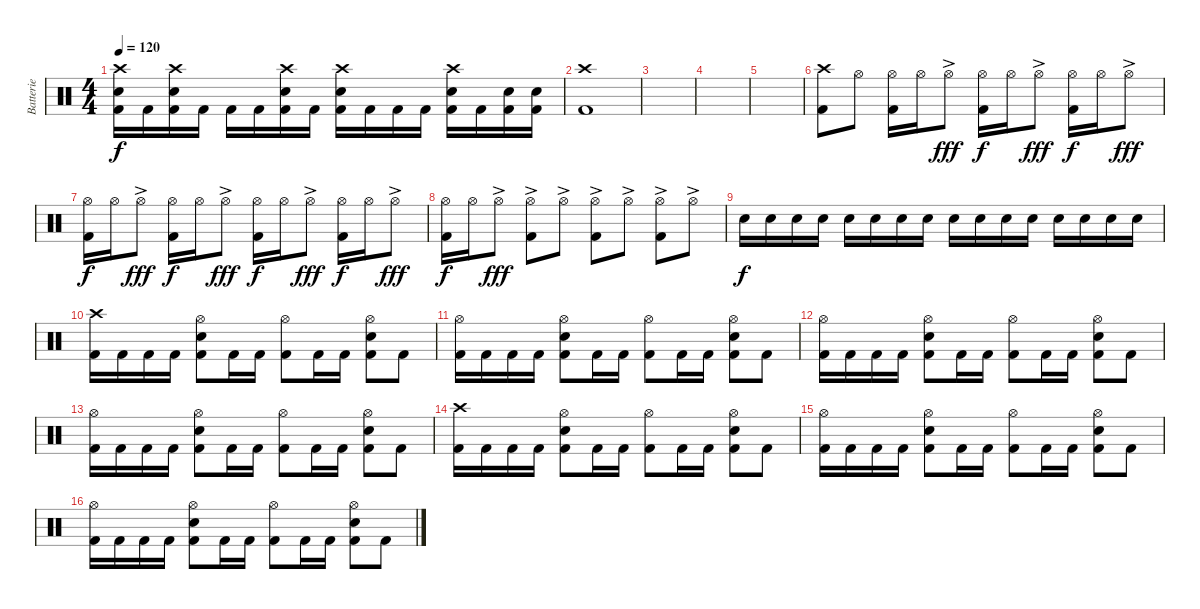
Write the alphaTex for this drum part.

\track ("Batterie" "Batterie") {instrument percussion}
\staff {score}
\articulation defaults
\ts (4 4)
\tempo 120
\clef neutral
\ks c
("Crash high (hit)" "Kick (hit) 2" "Electric Snare (hit)").16{dy f} "Kick (hit) 2".16 ("Crash high (hit)" "Kick (hit) 2" "Electric Snare (hit)").16 "Kick (hit) 2".16 "Kick (hit) 2".16 "Kick (hit) 2".16 ("Crash high (hit)" "Kick (hit) 2" "Electric Snare (hit)").16 "Kick (hit) 2".16 ("Crash high (hit)" "Kick (hit) 2" "Electric Snare (hit)").16 "Kick (hit) 2".16 "Kick (hit) 2".16 "Kick (hit) 2".16 ("Crash high (hit)" "Kick (hit) 2" "Electric Snare (hit)").16 "Kick (hit) 2".16 ("Kick (hit) 2" "Electric Snare (hit)").16 ("Kick (hit) 2" "Electric Snare (hit)").16 |
("Crash high (hit)" "Kick (hit) 2").1 |
|
|
|
("Crash high (hit)" "Kick (hit) 2").8 "Hi-Hat (open)".8 ("Hi-Hat (open)" "Kick (hit) 2").16 "Hi-Hat (open)".16 "Hi-Hat (open)"{ac}.8{dy fff} ("Hi-Hat (open)" "Kick (hit) 2").16{dy f} "Hi-Hat (open)".16 "Hi-Hat (open)"{ac}.8{dy fff} ("Hi-Hat (open)" "Kick (hit) 2").16{dy f} "Hi-Hat (open)".16 "Hi-Hat (open)"{ac}.8{dy fff} |
("Hi-Hat (open)" "Kick (hit) 2").16{dy f} "Hi-Hat (open)".16 "Hi-Hat (open)"{ac}.8{dy fff} ("Hi-Hat (open)" "Kick (hit) 2").16{dy f} "Hi-Hat (open)".16 "Hi-Hat (open)"{ac}.8{dy fff} ("Hi-Hat (open)" "Kick (hit) 2").16{dy f} "Hi-Hat (open)".16 "Hi-Hat (open)"{ac}.8{dy fff} ("Hi-Hat (open)" "Kick (hit) 2").16{dy f} "Hi-Hat (open)".16 "Hi-Hat (open)"{ac}.8{dy fff} |
("Hi-Hat (open)" "Kick (hit) 2").16{dy f} "Hi-Hat (open)".16 "Hi-Hat (open)"{ac}.8{dy fff} ("Hi-Hat (open)"{ac} "Kick (hit) 2").8 "Hi-Hat (open)"{ac}.8 ("Hi-Hat (open)"{ac} "Kick (hit) 2").8 "Hi-Hat (open)"{ac}.8 ("Hi-Hat (open)"{ac} "Kick (hit) 2").8 "Hi-Hat (open)"{ac}.8 |
"Electric Snare (hit)".16{dy f} "Electric Snare (hit)".16 "Electric Snare (hit)".16 "Electric Snare (hit)".16 "Electric Snare (hit)".16 "Electric Snare (hit)".16 "Electric Snare (hit)".16 "Electric Snare (hit)".16 "Electric Snare (hit)".16 "Electric Snare (hit)".16 "Electric Snare (hit)".16 "Electric Snare (hit)".16 "Electric Snare (hit)".16 "Electric Snare (hit)".16 "Electric Snare (hit)".16 "Electric Snare (hit)".16 |
("Kick (hit) 2" "Crash high (hit)").16 "Kick (hit) 2".16 "Kick (hit) 2".16 "Kick (hit) 2".16 ("Kick (hit) 2" "Electric Snare (hit)" "Hi-Hat (open)").8 "Kick (hit) 2".16 "Kick (hit) 2".16 ("Kick (hit) 2" "Hi-Hat (open)").8 "Kick (hit) 2".16 "Kick (hit) 2".16 ("Kick (hit) 2" "Electric Snare (hit)" "Hi-Hat (open)").8 "Kick (hit) 2".8 |
("Kick (hit) 2" "Hi-Hat (open)").16 "Kick (hit) 2".16 "Kick (hit) 2".16 "Kick (hit) 2".16 ("Kick (hit) 2" "Electric Snare (hit)" "Hi-Hat (open)").8 "Kick (hit) 2".16 "Kick (hit) 2".16 ("Kick (hit) 2" "Hi-Hat (open)").8 "Kick (hit) 2".16 "Kick (hit) 2".16 ("Kick (hit) 2" "Electric Snare (hit)" "Hi-Hat (open)").8 "Kick (hit) 2".8 |
("Kick (hit) 2" "Hi-Hat (open)").16 "Kick (hit) 2".16 "Kick (hit) 2".16 "Kick (hit) 2".16 ("Kick (hit) 2" "Electric Snare (hit)" "Hi-Hat (open)").8 "Kick (hit) 2".16 "Kick (hit) 2".16 ("Kick (hit) 2" "Hi-Hat (open)").8 "Kick (hit) 2".16 "Kick (hit) 2".16 ("Kick (hit) 2" "Electric Snare (hit)" "Hi-Hat (open)").8 "Kick (hit) 2".8 |
("Kick (hit) 2" "Hi-Hat (open)").16 "Kick (hit) 2".16 "Kick (hit) 2".16 "Kick (hit) 2".16 ("Kick (hit) 2" "Electric Snare (hit)" "Hi-Hat (open)").8 "Kick (hit) 2".16 "Kick (hit) 2".16 ("Kick (hit) 2" "Hi-Hat (open)").8 "Kick (hit) 2".16 "Kick (hit) 2".16 ("Kick (hit) 2" "Electric Snare (hit)" "Hi-Hat (open)").8 "Kick (hit) 2".8 |
("Kick (hit) 2" "Crash high (hit)").16 "Kick (hit) 2".16 "Kick (hit) 2".16 "Kick (hit) 2".16 ("Kick (hit) 2" "Electric Snare (hit)" "Hi-Hat (open)").8 "Kick (hit) 2".16 "Kick (hit) 2".16 ("Kick (hit) 2" "Hi-Hat (open)").8 "Kick (hit) 2".16 "Kick (hit) 2".16 ("Kick (hit) 2" "Electric Snare (hit)" "Hi-Hat (open)").8 "Kick (hit) 2".8 |
("Kick (hit) 2" "Hi-Hat (open)").16 "Kick (hit) 2".16 "Kick (hit) 2".16 "Kick (hit) 2".16 ("Kick (hit) 2" "Electric Snare (hit)" "Hi-Hat (open)").8 "Kick (hit) 2".16 "Kick (hit) 2".16 ("Kick (hit) 2" "Hi-Hat (open)").8 "Kick (hit) 2".16 "Kick (hit) 2".16 ("Kick (hit) 2" "Electric Snare (hit)" "Hi-Hat (open)").8 "Kick (hit) 2".8 |
("Kick (hit) 2" "Hi-Hat (open)").16 "Kick (hit) 2".16 "Kick (hit) 2".16 "Kick (hit) 2".16 ("Kick (hit) 2" "Electric Snare (hit)" "Hi-Hat (open)").8 "Kick (hit) 2".16 "Kick (hit) 2".16 ("Kick (hit) 2" "Hi-Hat (open)").8 "Kick (hit) 2".16 "Kick (hit) 2".16 ("Kick (hit) 2" "Electric Snare (hit)" "Hi-Hat (open)").8 "Kick (hit) 2".8
